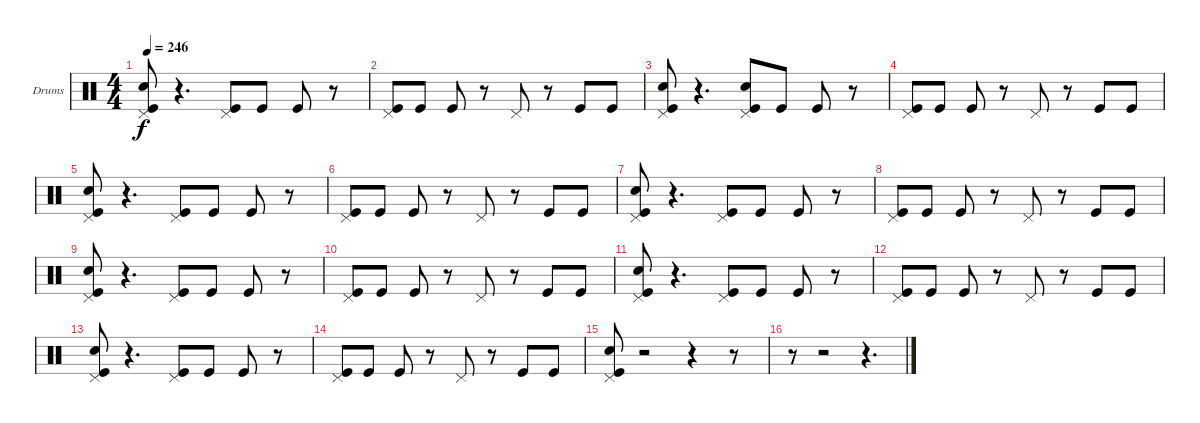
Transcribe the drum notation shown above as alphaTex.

\bracketExtendMode groupsimilarinstruments
\firstSystemTrackNameOrientation horizontal
\otherSystemsTrackNameOrientation horizontal
\track ("Drumkit" "Drums") {instrument percussion}
\staff {score}
\articulation defaults
\ts (4 4)
\tempo 246
\clef neutral
\ks c
("Kick (hit)" "Pedal Hi-Hat (hit)" "Snare (hit) 2").8{dy f} r.4{d} ("Pedal Hi-Hat (hit)" "Kick (hit)").8 "Kick (hit)".8 "Kick (hit)".8 r.8 |
("Kick (hit)" "Pedal Hi-Hat (hit)").8 "Kick (hit)".8 "Kick (hit)".8 r.8 "Pedal Hi-Hat (hit)".8 r.8 "Kick (hit)".8 "Kick (hit)".8 |
("Snare (hit) 2" "Pedal Hi-Hat (hit)" "Kick (hit)").8 r.4{d} ("Snare (hit) 2" "Pedal Hi-Hat (hit)" "Kick (hit)").8 "Kick (hit)".8 "Kick (hit)".8 r.8 |
("Pedal Hi-Hat (hit)" "Kick (hit)").8 "Kick (hit)".8 "Kick (hit)".8 r.8 "Pedal Hi-Hat (hit)".8 r.8 "Kick (hit)".8 "Kick (hit)".8 |
("Snare (hit) 2" "Pedal Hi-Hat (hit)" "Kick (hit)").8 r.4{d} ("Pedal Hi-Hat (hit)" "Kick (hit)").8 "Kick (hit)".8 "Kick (hit)".8 r.8 |
("Kick (hit)" "Pedal Hi-Hat (hit)").8 "Kick (hit)".8 "Kick (hit)".8 r.8 "Pedal Hi-Hat (hit)".8 r.8 "Kick (hit)".8 "Kick (hit)".8 |
("Snare (hit) 2" "Pedal Hi-Hat (hit)" "Kick (hit)").8 r.4{d} ("Kick (hit)" "Pedal Hi-Hat (hit)").8 "Kick (hit)".8 "Kick (hit)".8 r.8 |
("Kick (hit)" "Pedal Hi-Hat (hit)").8 "Kick (hit)".8 "Kick (hit)".8 r.8 "Pedal Hi-Hat (hit)".8 r.8 "Kick (hit)".8 "Kick (hit)".8 |
("Kick (hit)" "Pedal Hi-Hat (hit)" "Snare (hit) 2").8 r.4{d} ("Kick (hit)" "Pedal Hi-Hat (hit)").8 "Kick (hit)".8 "Kick (hit)".8 r.8 |
("Pedal Hi-Hat (hit)" "Kick (hit)").8 "Kick (hit)".8 "Kick (hit)".8 r.8 "Pedal Hi-Hat (hit)".8 r.8 "Kick (hit)".8 "Kick (hit)".8 |
("Snare (hit) 2" "Pedal Hi-Hat (hit)" "Kick (hit)").8 r.4{d} ("Pedal Hi-Hat (hit)" "Kick (hit)").8 "Kick (hit)".8 "Kick (hit)".8 r.8 |
("Pedal Hi-Hat (hit)" "Kick (hit)").8 "Kick (hit)".8 "Kick (hit)".8 r.8 "Pedal Hi-Hat (hit)".8 r.8 "Kick (hit)".8 "Kick (hit)".8 |
("Snare (hit) 2" "Pedal Hi-Hat (hit)" "Kick (hit)").8 r.4{d} ("Pedal Hi-Hat (hit)" "Kick (hit)").8 "Kick (hit)".8 "Kick (hit)".8 r.8 |
("Kick (hit)" "Pedal Hi-Hat (hit)").8 "Kick (hit)".8 "Kick (hit)".8 r.8 "Pedal Hi-Hat (hit)".8 r.8 "Kick (hit)".8 "Kick (hit)".8 |
("Kick (hit)" "Pedal Hi-Hat (hit)" "Snare (hit) 2").8 r.2 r.4 r.8 |
r.8 r.2 r.4{d}
